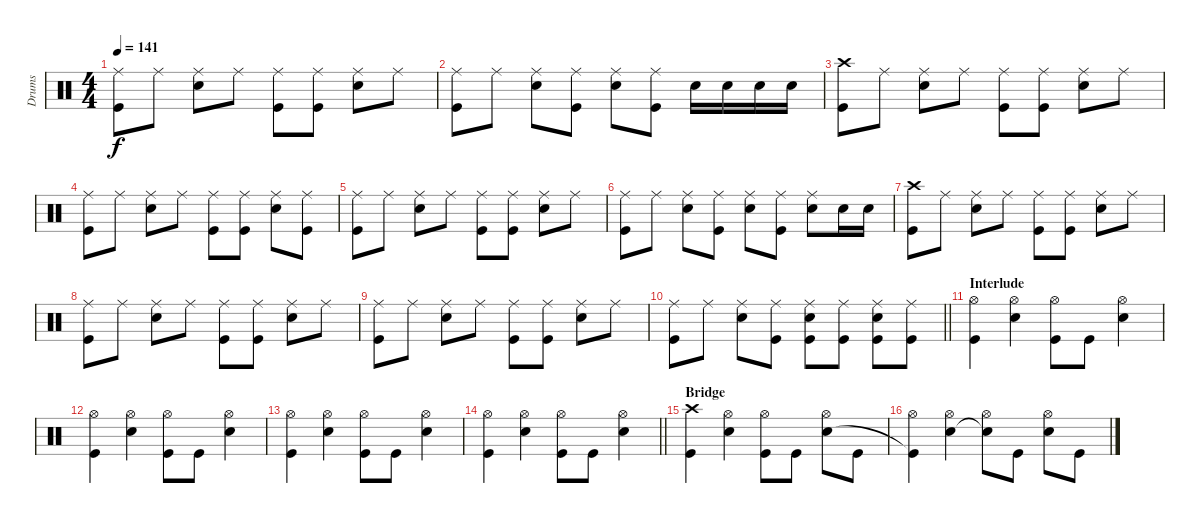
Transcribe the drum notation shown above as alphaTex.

\track ("Drums" "Drums") {instrument percussion}
\staff {score}
\articulation defaults
\ts (4 4)
\tempo 141
\clef neutral
\ks c
("Ride (middle)" "Kick (hit)").8{dy f} "Ride (middle)".8 ("Ride (middle)" "Snare (hit) 2").8 "Ride (middle)".8 ("Ride (middle)" "Kick (hit)").8 ("Ride (middle)" "Kick (hit)").8 ("Ride (middle)" "Snare (hit) 2").8 "Ride (middle)".8 |
("Ride (middle)" "Kick (hit)").8 "Ride (middle)".8 ("Ride (middle)" "Snare (hit) 2").8 ("Ride (middle)" "Kick (hit)").8 ("Ride (middle)" "Snare (hit) 2").8 ("Ride (middle)" "Kick (hit)").8 "Snare (hit) 2".16 "Snare (hit) 2".16 "Snare (hit) 2".16 "Snare (hit) 2".16 |
("Crash high (hit)" "Kick (hit)").8 "Ride (middle)".8 ("Ride (middle)" "Snare (hit) 2").8 "Ride (middle)".8 ("Ride (middle)" "Kick (hit)").8 ("Ride (middle)" "Kick (hit)").8 ("Ride (middle)" "Snare (hit) 2").8 "Ride (middle)".8 |
("Ride (middle)" "Kick (hit)").8 "Ride (middle)".8 ("Ride (middle)" "Snare (hit) 2").8 "Ride (middle)".8 ("Ride (middle)" "Kick (hit)").8 ("Ride (middle)" "Kick (hit)").8 ("Ride (middle)" "Snare (hit) 2").8 ("Ride (middle)" "Kick (hit)").8 |
("Ride (middle)" "Kick (hit)").8 "Ride (middle)".8 ("Ride (middle)" "Snare (hit) 2").8 "Ride (middle)".8 ("Ride (middle)" "Kick (hit)").8 ("Ride (middle)" "Kick (hit)").8 ("Ride (middle)" "Snare (hit) 2").8 "Ride (middle)".8 |
("Ride (middle)" "Kick (hit)").8 "Ride (middle)".8 ("Ride (middle)" "Snare (hit) 2").8 ("Ride (middle)" "Kick (hit)").8 ("Ride (middle)" "Snare (hit) 2").8 ("Ride (middle)" "Kick (hit)").8 ("Ride (middle)" "Snare (hit) 2").8 "Snare (hit) 2".16 "Snare (hit) 2".16 |
("Crash high (hit)" "Kick (hit)").8 "Ride (middle)".8 ("Ride (middle)" "Snare (hit) 2").8 "Ride (middle)".8 ("Ride (middle)" "Kick (hit)").8 ("Ride (middle)" "Kick (hit)").8 ("Ride (middle)" "Snare (hit) 2").8 "Ride (middle)".8 |
("Ride (middle)" "Kick (hit)").8 "Ride (middle)".8 ("Ride (middle)" "Snare (hit) 2").8 "Ride (middle)".8 ("Ride (middle)" "Kick (hit)").8 ("Ride (middle)" "Kick (hit)").8 ("Ride (middle)" "Snare (hit) 2").8 "Ride (middle)".8 |
("Ride (middle)" "Kick (hit)").8 "Ride (middle)".8 ("Ride (middle)" "Snare (hit) 2").8 "Ride (middle)".8 ("Ride (middle)" "Kick (hit)").8 ("Ride (middle)" "Kick (hit)").8 ("Ride (middle)" "Snare (hit) 2").8 "Ride (middle)".8 |
\barLineRight lightlight
("Ride (middle)" "Kick (hit)").8 "Ride (middle)".8 ("Ride (middle)" "Snare (hit) 2").8 ("Ride (middle)" "Kick (hit)").8 ("Ride (middle)" "Snare (hit) 2" "Kick (hit)").8 ("Ride (middle)" "Kick (hit)").8 ("Ride (middle)" "Snare (hit) 2" "Kick (hit)").8 ("Ride (middle)" "Kick (hit)").8 |
\section ("" "Interlude")
("Hi-Hat (open)" "Kick (hit)").4 ("Hi-Hat (open)" "Snare (hit) 2").4 ("Hi-Hat (open)" "Kick (hit)").8 "Kick (hit)".8 ("Hi-Hat (open)" "Snare (hit) 2").4 |
("Hi-Hat (open)" "Kick (hit)").4 ("Hi-Hat (open)" "Snare (hit) 2").4 ("Hi-Hat (open)" "Kick (hit)").8 "Kick (hit)".8 ("Hi-Hat (open)" "Snare (hit) 2").4 |
("Hi-Hat (open)" "Kick (hit)").4 ("Hi-Hat (open)" "Snare (hit) 2").4 ("Hi-Hat (open)" "Kick (hit)").8 "Kick (hit)".8 ("Hi-Hat (open)" "Snare (hit) 2").4 |
\barLineRight lightlight
("Hi-Hat (open)" "Kick (hit)").4 ("Hi-Hat (open)" "Snare (hit) 2").4 ("Hi-Hat (open)" "Kick (hit)").8 "Kick (hit)".8 ("Hi-Hat (open)" "Snare (hit) 2").4 |
\section ("" "Bridge")
("Kick (hit)" "Crash high (hit)").4 ("Electric Snare (hit)" "Hi-Hat (open)").4 ("Hi-Hat (open)" "Kick (hit)").8 "Kick (hit)".8 ("Hi-Hat (open)" "Snare (hit) 2").8 "Kick (hit)".8 |
("Hi-Hat (open)" "Kick (hit)"{t}).4 ("Hi-Hat (open)" "Snare (hit) 2").4 ("Hi-Hat (open)" "Snare (hit) 2"{t}).8 "Kick (hit)".8 ("Hi-Hat (open)" "Snare (hit) 2").8 "Kick (hit)".8
